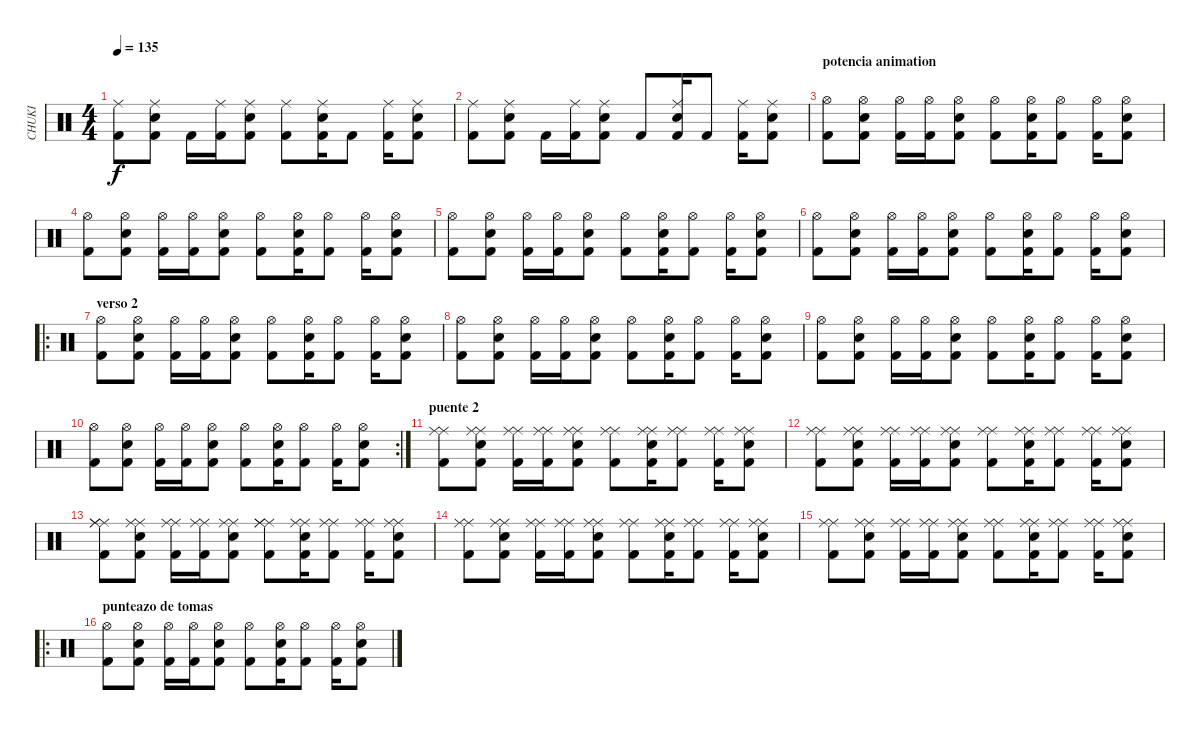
\track ("CHUKI" "CHUKI") {instrument percussion}
\staff {score}
\articulation defaults
\ts (4 4)
\tempo 135
\clef neutral
\ks c
("Kick (hit) 2" "Ride (middle)").8{dy f} ("Kick (hit) 2" "Ride (middle)" "Snare (hit) 2").8 "Kick (hit) 2".16 ("Kick (hit) 2" "Ride (middle)").16 ("Kick (hit) 2" "Ride (middle)" "Snare (hit) 2").8 ("Kick (hit) 2" "Ride (middle)").8 ("Kick (hit) 2" "Ride (middle)" "Snare (hit) 2").16 "Kick (hit) 2".8 ("Kick (hit) 2" "Ride (middle)").16 ("Kick (hit) 2" "Ride (middle)" "Snare (hit) 2").8 |
("Kick (hit) 2" "Ride (middle)").8 ("Kick (hit) 2" "Ride (middle)" "Snare (hit) 2").8 "Kick (hit) 2".16 ("Kick (hit) 2" "Ride (middle)").16 ("Kick (hit) 2" "Ride (middle)" "Snare (hit) 2").8 "Kick (hit) 2".8 ("Kick (hit) 2" "Ride (middle)" "Snare (hit) 2").16 "Kick (hit) 2".8 ("Kick (hit) 2" "Ride (middle)").16 ("Kick (hit) 2" "Ride (middle)" "Snare (hit) 2").8 |
\section ("" "potencia animation")
("Kick (hit) 2" "Hi-Hat (open)").8 ("Kick (hit) 2" "Electric Snare (hit)" "Hi-Hat (open)").8 ("Kick (hit) 2" "Hi-Hat (open)").16 ("Kick (hit) 2" "Hi-Hat (open)").16 ("Kick (hit) 2" "Electric Snare (hit)" "Hi-Hat (open)").8 ("Kick (hit) 2" "Hi-Hat (open)").8 ("Kick (hit) 2" "Electric Snare (hit)" "Hi-Hat (open)").16 ("Kick (hit) 2" "Hi-Hat (open)").8 ("Kick (hit) 2" "Hi-Hat (open)").16 ("Kick (hit) 2" "Electric Snare (hit)" "Hi-Hat (open)").8 |
("Kick (hit) 2" "Hi-Hat (open)").8 ("Kick (hit) 2" "Electric Snare (hit)" "Hi-Hat (open)").8 ("Kick (hit) 2" "Hi-Hat (open)").16 ("Kick (hit) 2" "Hi-Hat (open)").16 ("Kick (hit) 2" "Electric Snare (hit)" "Hi-Hat (open)").8 ("Kick (hit) 2" "Hi-Hat (open)").8 ("Kick (hit) 2" "Electric Snare (hit)" "Hi-Hat (open)").16 ("Kick (hit) 2" "Hi-Hat (open)").8 ("Kick (hit) 2" "Hi-Hat (open)").16 ("Kick (hit) 2" "Electric Snare (hit)" "Hi-Hat (open)").8 |
("Kick (hit) 2" "Hi-Hat (open)").8 ("Kick (hit) 2" "Electric Snare (hit)" "Hi-Hat (open)").8 ("Kick (hit) 2" "Hi-Hat (open)").16 ("Kick (hit) 2" "Hi-Hat (open)").16 ("Kick (hit) 2" "Electric Snare (hit)" "Hi-Hat (open)").8 ("Kick (hit) 2" "Hi-Hat (open)").8 ("Kick (hit) 2" "Electric Snare (hit)" "Hi-Hat (open)").16 ("Kick (hit) 2" "Hi-Hat (open)").8 ("Kick (hit) 2" "Hi-Hat (open)").16 ("Kick (hit) 2" "Electric Snare (hit)" "Hi-Hat (open)").8 |
("Kick (hit) 2" "Hi-Hat (open)").8 ("Kick (hit) 2" "Electric Snare (hit)" "Hi-Hat (open)").8 ("Kick (hit) 2" "Hi-Hat (open)").16 ("Kick (hit) 2" "Hi-Hat (open)").16 ("Kick (hit) 2" "Electric Snare (hit)" "Hi-Hat (open)").8 ("Kick (hit) 2" "Hi-Hat (open)").8 ("Kick (hit) 2" "Electric Snare (hit)" "Hi-Hat (open)").16 ("Kick (hit) 2" "Hi-Hat (open)").8 ("Kick (hit) 2" "Hi-Hat (open)").16 ("Kick (hit) 2" "Electric Snare (hit)" "Hi-Hat (open)").8 |
\ro
\section ("" "verso 2")
("Kick (hit) 2" "Hi-Hat (open)").8 ("Kick (hit) 2" "Snare (hit) 2" "Hi-Hat (open)").8 ("Kick (hit) 2" "Hi-Hat (open)").16 ("Kick (hit) 2" "Hi-Hat (open)").16 ("Kick (hit) 2" "Snare (hit) 2" "Hi-Hat (open)").8 ("Kick (hit) 2" "Hi-Hat (open)").8 ("Kick (hit) 2" "Snare (hit) 2" "Hi-Hat (open)").16 ("Kick (hit) 2" "Hi-Hat (open)").8 ("Kick (hit) 2" "Hi-Hat (open)").16 ("Kick (hit) 2" "Snare (hit) 2" "Hi-Hat (open)").8 |
("Kick (hit) 2" "Hi-Hat (open)").8 ("Kick (hit) 2" "Snare (hit) 2" "Hi-Hat (open)").8 ("Kick (hit) 2" "Hi-Hat (open)").16 ("Kick (hit) 2" "Hi-Hat (open)").16 ("Kick (hit) 2" "Snare (hit) 2" "Hi-Hat (open)").8 ("Kick (hit) 2" "Hi-Hat (open)").8 ("Kick (hit) 2" "Snare (hit) 2" "Hi-Hat (open)").16 ("Kick (hit) 2" "Hi-Hat (open)").8 ("Kick (hit) 2" "Hi-Hat (open)").16 ("Kick (hit) 2" "Snare (hit) 2" "Hi-Hat (open)").8 |
("Kick (hit) 2" "Hi-Hat (open)").8 ("Kick (hit) 2" "Snare (hit) 2" "Hi-Hat (open)").8 ("Kick (hit) 2" "Hi-Hat (open)").16 ("Kick (hit) 2" "Hi-Hat (open)").16 ("Kick (hit) 2" "Snare (hit) 2" "Hi-Hat (open)").8 ("Kick (hit) 2" "Hi-Hat (open)").8 ("Kick (hit) 2" "Snare (hit) 2" "Hi-Hat (open)").16 ("Kick (hit) 2" "Hi-Hat (open)").8 ("Kick (hit) 2" "Hi-Hat (open)").16 ("Kick (hit) 2" "Snare (hit) 2" "Hi-Hat (open)").8 |
\rc 2
("Kick (hit) 2" "Hi-Hat (open)").8 ("Kick (hit) 2" "Snare (hit) 2" "Hi-Hat (open)").8 ("Kick (hit) 2" "Hi-Hat (open)").16 ("Kick (hit) 2" "Hi-Hat (open)").16 ("Kick (hit) 2" "Snare (hit) 2" "Hi-Hat (open)").8 ("Kick (hit) 2" "Hi-Hat (open)").8 ("Kick (hit) 2" "Snare (hit) 2" "Hi-Hat (open)").16 ("Kick (hit) 2" "Hi-Hat (open)").8 ("Kick (hit) 2" "Hi-Hat (open)").16 ("Kick (hit) 2" "Snare (hit) 2" "Hi-Hat (open)").8 |
\section ("" "puente 2")
("Kick (hit) 2" "Ride (middle)" "Ride (middle)").8 ("Kick (hit) 2" "Ride (middle)" "Snare (hit) 2" "Ride (middle)").8 ("Kick (hit) 2" "Ride (middle)" "Ride (middle)").16 ("Kick (hit) 2" "Ride (middle)" "Ride (middle)").16 ("Kick (hit) 2" "Ride (middle)" "Snare (hit) 2" "Ride (middle)").8 ("Kick (hit) 2" "Ride (middle)" "Ride (middle)").8 ("Kick (hit) 2" "Ride (middle)" "Snare (hit) 2" "Ride (middle)").16 ("Kick (hit) 2" "Ride (middle)" "Ride (middle)").8 ("Kick (hit) 2" "Ride (middle)" "Ride (middle)").16 ("Kick (hit) 2" "Ride (middle)" "Snare (hit) 2" "Ride (middle)").8 |
("Kick (hit) 2" "Ride (middle)" "Ride (middle)").8 ("Kick (hit) 2" "Snare (hit) 2" "Ride (middle)" "Ride (middle)").8 ("Kick (hit) 2" "Ride (middle)" "Ride (middle)").16 ("Kick (hit) 2" "Ride (middle)" "Ride (middle)").16 ("Kick (hit) 2" "Snare (hit) 2" "Ride (middle)" "Ride (middle)").8 ("Kick (hit) 2" "Ride (middle)" "Ride (middle)").8 ("Kick (hit) 2" "Snare (hit) 2" "Ride (middle)" "Ride (middle)").16 ("Kick (hit) 2" "Ride (middle)" "Ride (middle)").8 ("Kick (hit) 2" "Ride (middle)" "Ride (middle)").16 ("Kick (hit) 2" "Snare (hit) 2" "Ride (middle)" "Ride (middle)").8 |
("Kick (hit) 2" "Ride (middle)" "Ride (middle)" "Ride (middle)").8 ("Kick (hit) 2" "Ride (middle)" "Snare (hit) 2" "Ride (middle)").8 ("Kick (hit) 2" "Ride (middle)" "Ride (middle)").16 ("Kick (hit) 2" "Ride (middle)" "Ride (middle)").16 ("Kick (hit) 2" "Ride (middle)" "Snare (hit) 2" "Ride (middle)").8 ("Kick (hit) 2" "Ride (middle)" "Ride (middle)" "Ride (middle)").8 ("Kick (hit) 2" "Ride (middle)" "Snare (hit) 2" "Ride (middle)").16 ("Kick (hit) 2" "Ride (middle)" "Ride (middle)").8 ("Kick (hit) 2" "Ride (middle)" "Ride (middle)").16 ("Kick (hit) 2" "Ride (middle)" "Snare (hit) 2" "Ride (middle)").8 |
("Kick (hit) 2" "Ride (middle)" "Ride (middle)").8 ("Kick (hit) 2" "Ride (middle)" "Snare (hit) 2" "Ride (middle)").8 ("Kick (hit) 2" "Ride (middle)" "Ride (middle)").16 ("Kick (hit) 2" "Ride (middle)" "Ride (middle)").16 ("Kick (hit) 2" "Ride (middle)" "Snare (hit) 2" "Ride (middle)").8 ("Kick (hit) 2" "Ride (middle)" "Ride (middle)").8 ("Kick (hit) 2" "Ride (middle)" "Snare (hit) 2" "Ride (middle)").16 ("Kick (hit) 2" "Ride (middle)" "Ride (middle)").8 ("Kick (hit) 2" "Ride (middle)" "Ride (middle)").16 ("Kick (hit) 2" "Ride (middle)" "Snare (hit) 2" "Ride (middle)").8 |
("Kick (hit) 2" "Ride (middle)" "Ride (middle)").8 ("Kick (hit) 2" "Ride (middle)" "Snare (hit) 2" "Ride (middle)").8 ("Kick (hit) 2" "Ride (middle)" "Ride (middle)").16 ("Kick (hit) 2" "Ride (middle)" "Ride (middle)").16 ("Kick (hit) 2" "Ride (middle)" "Snare (hit) 2" "Ride (middle)").8 ("Kick (hit) 2" "Ride (middle)" "Ride (middle)").8 ("Kick (hit) 2" "Ride (middle)" "Snare (hit) 2" "Ride (middle)").16 ("Kick (hit) 2" "Ride (middle)" "Ride (middle)").8 ("Kick (hit) 2" "Ride (middle)" "Ride (middle)").16 ("Kick (hit) 2" "Ride (middle)" "Snare (hit) 2" "Ride (middle)").8 |
\ro
\section ("" "punteazo de tomas")
("Kick (hit) 2" "Hi-Hat (open)").8 ("Kick (hit) 2" "Electric Snare (hit)" "Hi-Hat (open)").8 ("Kick (hit) 2" "Hi-Hat (open)").16 ("Kick (hit) 2" "Hi-Hat (open)").16 ("Kick (hit) 2" "Electric Snare (hit)" "Hi-Hat (open)").8 ("Kick (hit) 2" "Hi-Hat (open)").8 ("Kick (hit) 2" "Electric Snare (hit)" "Hi-Hat (open)").16 ("Kick (hit) 2" "Hi-Hat (open)").8 ("Kick (hit) 2" "Hi-Hat (open)").16 ("Kick (hit) 2" "Electric Snare (hit)" "Hi-Hat (open)").8
